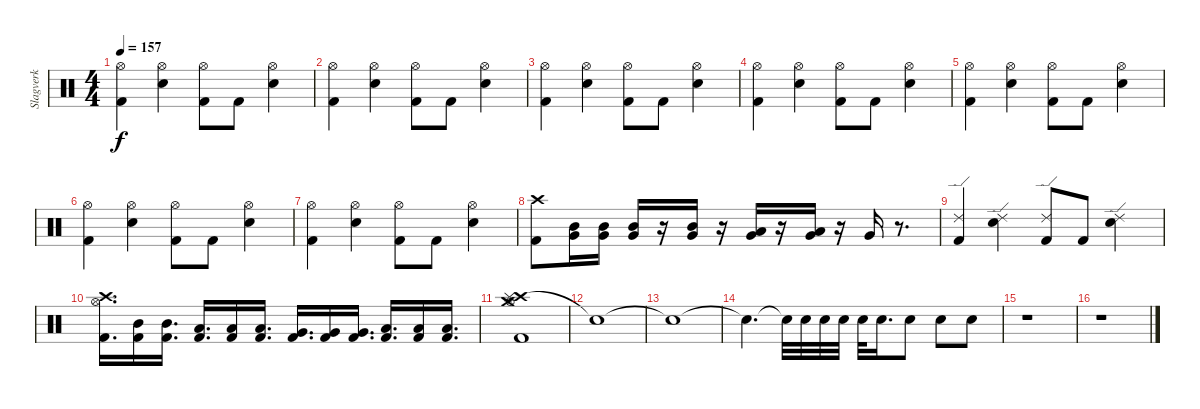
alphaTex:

\track ("Slagverk" "Slagverk") {instrument percussion}
\staff {score}
\articulation defaults
\ts (4 4)
\tempo 157
\clef neutral
\ks c
("Hi-Hat (open)" "Kick (hit) 2").4{dy f} ("Hi-Hat (open)" "Snare (hit) 2").4 ("Hi-Hat (open)" "Kick (hit) 2").8 "Kick (hit) 2".8 ("Hi-Hat (open)" "Snare (hit) 2").4 |
("Hi-Hat (open)" "Kick (hit) 2").4 ("Hi-Hat (open)" "Snare (hit) 2").4 ("Hi-Hat (open)" "Kick (hit) 2").8 "Kick (hit) 2".8 ("Hi-Hat (open)" "Snare (hit) 2").4 |
("Hi-Hat (open)" "Kick (hit) 2").4 ("Hi-Hat (open)" "Snare (hit) 2").4 ("Hi-Hat (open)" "Kick (hit) 2").8 "Kick (hit) 2".8 ("Hi-Hat (open)" "Snare (hit) 2").4 |
("Hi-Hat (open)" "Kick (hit) 2").4 ("Hi-Hat (open)" "Snare (hit) 2").4 ("Hi-Hat (open)" "Kick (hit) 2").8 "Kick (hit) 2".8 ("Hi-Hat (open)" "Snare (hit) 2").4 |
("Hi-Hat (open)" "Kick (hit) 2").4 ("Hi-Hat (open)" "Snare (hit) 2").4 ("Hi-Hat (open)" "Kick (hit) 2").8 "Kick (hit) 2".8 ("Hi-Hat (open)" "Snare (hit) 2").4 |
("Hi-Hat (open)" "Kick (hit) 2").4 ("Hi-Hat (open)" "Snare (hit) 2").4 ("Hi-Hat (open)" "Kick (hit) 2").8 "Kick (hit) 2".8 ("Hi-Hat (open)" "Snare (hit) 2").4 |
("Hi-Hat (open)" "Kick (hit) 2").4 ("Hi-Hat (open)" "Snare (hit) 2").4 ("Hi-Hat (open)" "Kick (hit) 2").8 "Kick (hit) 2".8 ("Hi-Hat (open)" "Snare (hit) 2").4 |
("Crash high (hit)" "Kick (hit) 2").8 ("Very Low Tom (hit)" "Mid Tom (hit)").16 ("Very Low Tom (hit)" "Mid Tom (hit)").16 ("Very Low Tom (hit)" "Mid Tom (hit)").16 r.16 ("Very Low Tom (hit)" "Mid Tom (hit)").16 r.16 ("Very Low Tom (hit)" "Low Tom (hit)").16 r.16 ("Very Low Tom (hit)" "Low Tom (hit)").16 r.16 "Very Low Tom (hit)".16 r.8{d} |
("Ride (edge) 2" "Kick (hit) 2").4 ("Ride (edge) 2" "Snare (hit) 2").4 ("Ride (edge) 2" "Kick (hit) 2").8 "Kick (hit) 2".8 ("Ride (edge) 2" "Snare (hit) 2").4 |
("Hi-Hat (open)" "Crash high (hit)" "Kick (hit) 2").16{d} ("Mid Tom (hit)" "Kick (hit) 2").16 ("Mid Tom (hit)" "Kick (hit) 2").16{d} ("Low Tom (hit)" "Kick (hit) 2").16{d} ("Low Tom (hit)" "Kick (hit) 2").16 ("Low Tom (hit)" "Kick (hit) 2").16{d} ("Very Low Tom (hit)" "Kick (hit) 2").16{d} ("Very Low Tom (hit)" "Kick (hit) 2").16 ("Very Low Tom (hit)" "Kick (hit) 2").16{d} ("Low Floor Tom (hit)" "Kick (hit) 2").16{d} ("Low Floor Tom (hit)" "Kick (hit) 2").16 ("Low Floor Tom (hit)" "Kick (hit) 2").16{d} |
("Crash high (hit)" "Crash medium (hit)" "Splash (hit)" "Hi-Hat (open)" "Kick (hit) 2").1 |
"Snare (hit)"{t}.1 |
"Snare (hit)"{t}.1 |
"Snare (hit)"{t}.4{d} "Snare (hit)"{t}.32 "Snare (hit) 2".32{volume 4} "Snare (hit) 2".32{volume 4} "Snare (hit) 2".32{volume 5} "Snare (hit) 2".32{volume 6} "Snare (hit) 2".16{d volume 7} "Snare (hit) 2".8{volume 9} "Snare (hit) 2".8{volume 12} "Snare (hit) 2".8 |
r.1 |
r.1
